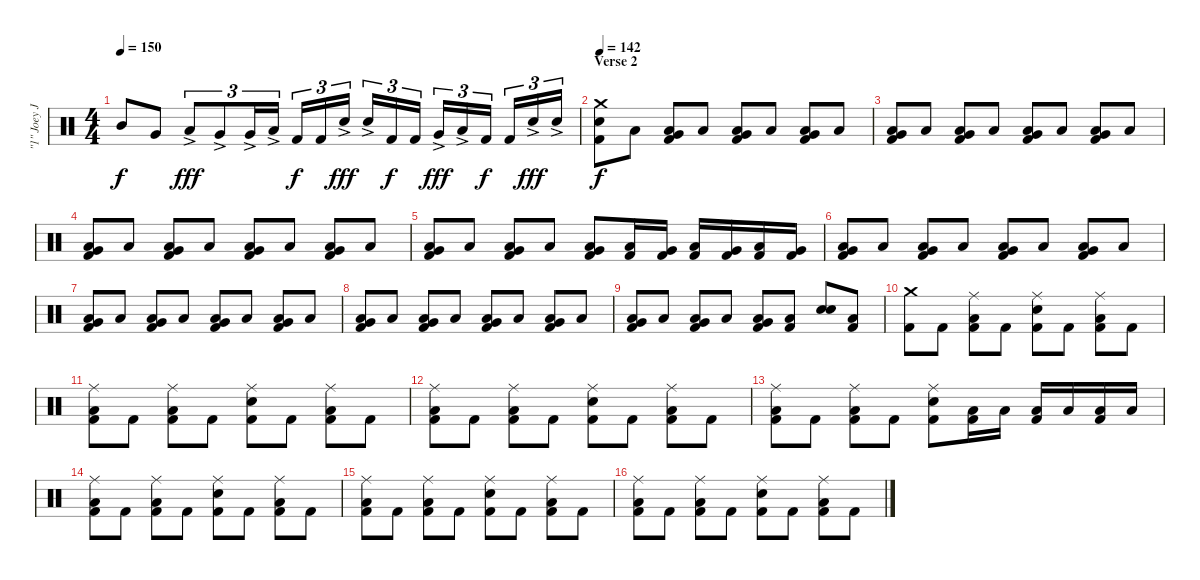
\track ("\"1\" Joey Jordison (Drums)" "\"1\" Joey J") {instrument percussion}
\staff {score}
\articulation defaults
\ts (4 4)
\tempo 150
\clef neutral
\ks c "Mid Tom (hit)".8{dy f} "Very Low Tom (hit)".8 "Low Tom (hit)"{ac}.8{tu (3 2) dy fff} "Very Low Tom (hit)"{ac}.8{tu (3 2)} "Very Low Tom (hit)"{ac}.16{tu (3 2)} "Low Floor Tom (hit)"{ac}.16{tu (3 2)} "Kick (hit) 2".16{tu (3 2) dy f} "Kick (hit) 2".16{tu (3 2)} "Electric Snare (hit)"{ac}.16{tu (3 2) dy fff} "Electric Snare (hit)"{ac}.16{tu (3 2)} "Kick (hit) 2".16{tu (3 2) dy f} "Kick (hit) 2".16{tu (3 2)} "Very Low Tom (hit)"{ac}.16{tu (3 2) dy fff} "Low Floor Tom (hit)"{ac}.16{tu (3 2)} "Kick (hit) 2".16{tu (3 2) dy f} "Kick (hit) 2".16{tu (3 2)} "Electric Snare (hit)"{ac}.16{tu (3 2) dy fff} "Electric Snare (hit)"{ac}.16{tu (3 2)}
|
\section ("" "Verse 2")
\tempo 142
("Crash medium (hit)" "Electric Snare (hit)" "Kick (hit) 2").8{dy f} "Low Floor Tom (hit)".8 ("Very Low Tom (hit)" "Low Floor Tom (hit)" "Kick (hit) 2").8 "Low Floor Tom (hit)".8 ("Very Low Tom (hit)" "Low Floor Tom (hit)" "Kick (hit) 2").8 "Low Floor Tom (hit)".8 ("Very Low Tom (hit)" "Low Floor Tom (hit)" "Kick (hit) 2").8 "Low Floor Tom (hit)".8 |
("Very Low Tom (hit)" "Low Floor Tom (hit)" "Kick (hit) 2").8 "Low Floor Tom (hit)".8 ("Very Low Tom (hit)" "Low Floor Tom (hit)" "Kick (hit) 2").8 "Low Floor Tom (hit)".8 ("Very Low Tom (hit)" "Low Floor Tom (hit)" "Kick (hit) 2").8 "Low Floor Tom (hit)".8 ("Very Low Tom (hit)" "Low Floor Tom (hit)" "Kick (hit) 2").8 "Low Floor Tom (hit)".8 |
("Very Low Tom (hit)" "Low Floor Tom (hit)" "Kick (hit) 2").8 "Low Floor Tom (hit)".8 ("Very Low Tom (hit)" "Low Floor Tom (hit)" "Kick (hit) 2").8 "Low Floor Tom (hit)".8 ("Very Low Tom (hit)" "Low Floor Tom (hit)" "Kick (hit) 2").8 "Low Floor Tom (hit)".8 ("Very Low Tom (hit)" "Low Floor Tom (hit)" "Kick (hit) 2").8 "Low Floor Tom (hit)".8 |
("Very Low Tom (hit)" "Low Floor Tom (hit)" "Kick (hit) 2").8 "Low Floor Tom (hit)".8 ("Very Low Tom (hit)" "Low Floor Tom (hit)" "Kick (hit) 2").8 "Low Floor Tom (hit)".8 ("Very Low Tom (hit)" "Low Floor Tom (hit)" "Kick (hit) 2").8 ("Low Floor Tom (hit)" "Kick (hit) 2").16 ("Very Low Tom (hit)" "Kick (hit) 2").16 ("Low Floor Tom (hit)" "Kick (hit) 2").16 ("Very Low Tom (hit)" "Kick (hit) 2").16 ("Low Floor Tom (hit)" "Kick (hit) 2").16 ("Very Low Tom (hit)" "Kick (hit) 2").16 |
("Very Low Tom (hit)" "Low Floor Tom (hit)" "Kick (hit) 2").8 "Low Floor Tom (hit)".8 ("Very Low Tom (hit)" "Low Floor Tom (hit)" "Kick (hit) 2").8 "Low Floor Tom (hit)".8 ("Very Low Tom (hit)" "Low Floor Tom (hit)" "Kick (hit) 2").8 "Low Floor Tom (hit)".8 ("Very Low Tom (hit)" "Low Floor Tom (hit)" "Kick (hit) 2").8 "Low Floor Tom (hit)".8 |
("Very Low Tom (hit)" "Low Floor Tom (hit)" "Kick (hit) 2").8 "Low Floor Tom (hit)".8 ("Very Low Tom (hit)" "Low Floor Tom (hit)" "Kick (hit) 2").8 "Low Floor Tom (hit)".8 ("Very Low Tom (hit)" "Low Floor Tom (hit)" "Kick (hit) 2").8 "Low Floor Tom (hit)".8 ("Very Low Tom (hit)" "Low Floor Tom (hit)" "Kick (hit) 2").8 "Low Floor Tom (hit)".8 |
("Very Low Tom (hit)" "Low Floor Tom (hit)" "Kick (hit) 2").8 "Low Floor Tom (hit)".8 ("Very Low Tom (hit)" "Low Floor Tom (hit)" "Kick (hit) 2").8 "Low Floor Tom (hit)".8 ("Very Low Tom (hit)" "Low Floor Tom (hit)" "Kick (hit) 2").8 "Low Floor Tom (hit)".8 ("Very Low Tom (hit)" "Low Floor Tom (hit)" "Kick (hit) 2").8 "Low Floor Tom (hit)".8 |
("Very Low Tom (hit)" "Low Floor Tom (hit)" "Kick (hit) 2").8 "Low Floor Tom (hit)".8 ("Very Low Tom (hit)" "Low Floor Tom (hit)" "Kick (hit) 2").8 "Low Floor Tom (hit)".8 ("Very Low Tom (hit)" "Low Floor Tom (hit)" "Kick (hit) 2").8 ("Low Floor Tom (hit)" "Kick (hit) 2").8 ("Electric Snare (hit)" "Electric Snare (hit)").8{bd 120} ("Low Floor Tom (hit)" "Kick (hit) 2").8 |
("Crash medium (hit)" "Kick (hit) 2").8 "Kick (hit) 2".8 ("Ride (middle)" "Low Floor Tom (hit)" "Kick (hit) 2").8 "Kick (hit) 2".8 ("Ride (middle)" "Electric Snare (hit)" "Kick (hit) 2").8 "Kick (hit) 2".8 ("Ride (middle)" "Low Floor Tom (hit)" "Kick (hit) 2").8 "Kick (hit) 2".8 |
("Ride (middle)" "Low Floor Tom (hit)" "Kick (hit) 2").8 "Kick (hit) 2".8 ("Ride (middle)" "Low Floor Tom (hit)" "Kick (hit) 2").8 "Kick (hit) 2".8 ("Ride (middle)" "Electric Snare (hit)" "Kick (hit) 2").8 "Kick (hit) 2".8 ("Ride (middle)" "Low Floor Tom (hit)" "Kick (hit) 2").8 "Kick (hit) 2".8 |
("Ride (middle)" "Low Floor Tom (hit)" "Kick (hit) 2").8 "Kick (hit) 2".8 ("Ride (middle)" "Low Floor Tom (hit)" "Kick (hit) 2").8 "Kick (hit) 2".8 ("Ride (middle)" "Electric Snare (hit)" "Kick (hit) 2").8 "Kick (hit) 2".8 ("Ride (middle)" "Low Floor Tom (hit)" "Kick (hit) 2").8 "Kick (hit) 2".8 |
("Ride (middle)" "Low Floor Tom (hit)" "Kick (hit) 2").8 "Kick (hit) 2".8 ("Ride (middle)" "Low Floor Tom (hit)" "Kick (hit) 2").8 "Kick (hit) 2".8 ("Ride (middle)" "Electric Snare (hit)" "Kick (hit) 2").8 ("Low Tom (hit)" "Kick (hit) 2").16 "Low Tom (hit)".16 ("Low Tom (hit)" "Kick (hit) 2").16 "Low Tom (hit)".16 ("Low Tom (hit)" "Kick (hit) 2").16 "Low Tom (hit)".16 |
("Ride (middle)" "Low Floor Tom (hit)" "Kick (hit) 2").8 "Kick (hit) 2".8 ("Ride (middle)" "Low Floor Tom (hit)" "Kick (hit) 2").8 "Kick (hit) 2".8 ("Ride (middle)" "Electric Snare (hit)" "Kick (hit) 2").8 "Kick (hit) 2".8 ("Ride (middle)" "Low Floor Tom (hit)" "Kick (hit) 2").8 "Kick (hit) 2".8 |
("Ride (middle)" "Low Floor Tom (hit)" "Kick (hit) 2").8 "Kick (hit) 2".8 ("Ride (middle)" "Low Floor Tom (hit)" "Kick (hit) 2").8 "Kick (hit) 2".8 ("Ride (middle)" "Electric Snare (hit)" "Kick (hit) 2").8 "Kick (hit) 2".8 ("Ride (middle)" "Low Floor Tom (hit)" "Kick (hit) 2").8 "Kick (hit) 2".8 |
("Ride (middle)" "Low Floor Tom (hit)" "Kick (hit) 2").8 "Kick (hit) 2".8 ("Ride (middle)" "Low Floor Tom (hit)" "Kick (hit) 2").8 "Kick (hit) 2".8 ("Ride (middle)" "Electric Snare (hit)" "Kick (hit) 2").8 "Kick (hit) 2".8 ("Ride (middle)" "Low Floor Tom (hit)" "Kick (hit) 2").8 "Kick (hit) 2".8
